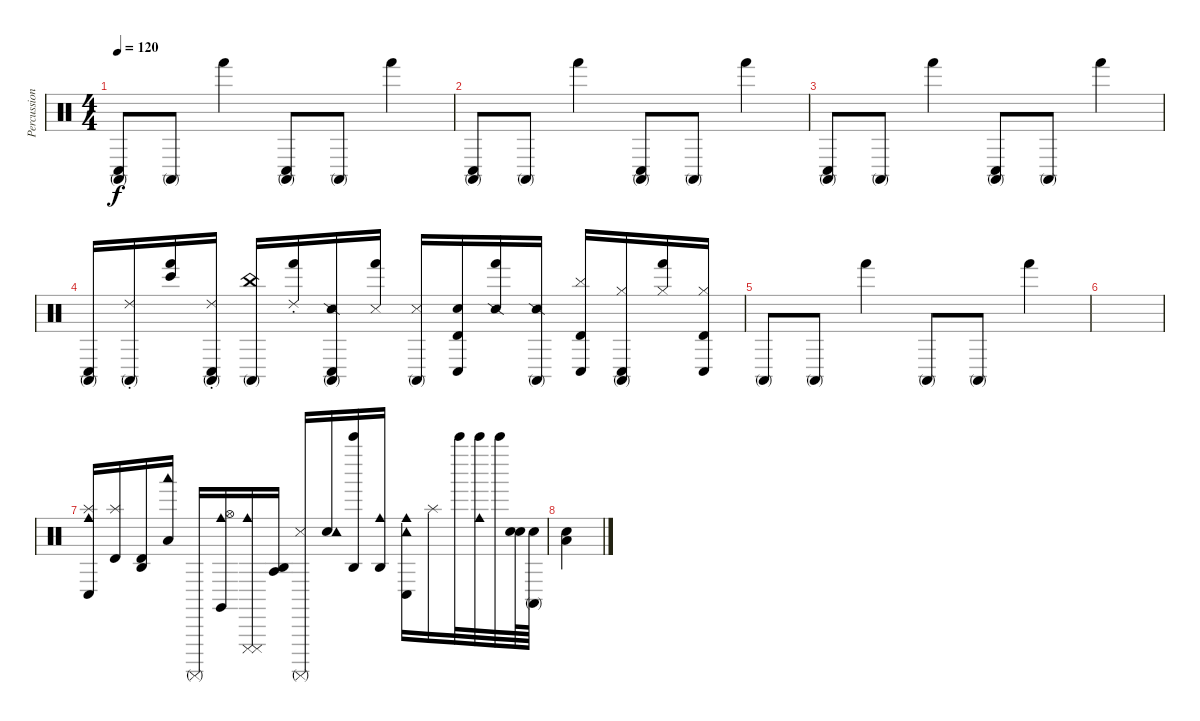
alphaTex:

\track ("Percussions" "Percussion") {instrument percussion}
\staff {score}
\articulation defaults
\ts (4 4)
\tempo 120
\clef neutral
\ks c
("Conga high (mute)" "Conga low (hit)").8{dy f} "Conga high (mute)".8 "Hand (hit)".4 ("Conga high (mute)" "Conga low (hit)").8 "Conga high (mute)".8 "Hand (hit)".4 |
("Conga high (mute)" "Conga low (hit)").8 "Conga high (mute)".8 "Hand (hit)".4 ("Conga high (mute)" "Conga low (hit)").8 "Conga high (mute)".8 "Hand (hit)".4 |
("Conga high (mute)" "Conga low (hit)").8 "Conga high (mute)".8 "Hand (hit)".4 ("Conga high (mute)" "Conga low (hit)").8 "Conga high (mute)".8 "Hand (hit)".4 |
("Conga high (mute)" "Conga low (hit)").16 ("Conga high (mute)" "Ride (choke) 2").16 ("Hand (hit)" "Bongo High (hit)").16 ("Conga high (mute)" "Conga low (hit)" "Ride (choke) 2").16 ("Conga high (mute)" "China (hit)").16 ("Hand (hit)" "Ride (choke) 2").16 ("Conga high (mute)" "Conga low (hit)" "Snare (side stick) 2").16 ("Hand (hit)" "Metronome (hit)").16 ("Conga high (mute)" "Metronome (hit)").16 ("Timbale high (hit)" "Conga low (hit)" "Snare (hit) 2").16 ("Hand (hit)" "Snare (side stick) 2").16 ("Conga high (mute)" "Snare (side stick) 2").16 ("Timbale high (hit)" "Conga low (hit)" "Cymbal (hit)").16 ("Conga high (mute)" "Conga low (hit)" "Hi-Hat (closed)").16 ("Hand (hit)" "Hi-Hat (closed)").16 ("Timbale high (hit)" "Conga low (hit)" "Hi-Hat (closed)").16 |
"Conga high (mute)".8 "Conga high (mute)".8 "Hand (hit)".4 "Conga high (mute)".8 "Conga high (mute)".8 "Hand (hit)".4 |
|
("Cowbell medium (hit)" "Conga low (hit)" "Splash (hit)").16 ("Splash (hit)" "Timbale high (hit)").16 ("Timbale high (hit)" "Agogo high (hit)").16 ("Low Tom (hit)" "Woodblock low (hit)").16 "Surdo (mute)".16 ("Cowbell medium (hit)" "Claves (hit)" "Hi-Hat (open)").16 ("Cuica (mute)" "Cuica (mute)" "Cowbell medium (hit)").16 ("Agogo tow (hit)" "Agogo high (hit)").16 ("Surdo (mute)" "Metronome (hit)").16 ("Snare (hit)" "Tambourine (hit)").16 ("Bell Tree (hit)" "Agogo high (hit)").16 ("Agogo high (hit)" "Cowbell medium (hit)").16 ("Tambourine (hit)" "Conga low (hit)" "Cowbell medium (hit)").16 "Splash (hit)".16 "Bell Tree (hit)".32 ("Bell Tree (hit)" "Cowbell medium (hit)").32 "Bell Tree (hit)".32 ("Snare (hit)" "Snare (hit)").64 ("Conga high (mute)" "Snare (hit)").64 |
("Snare (hit)" "Low Tom (hit)").4
